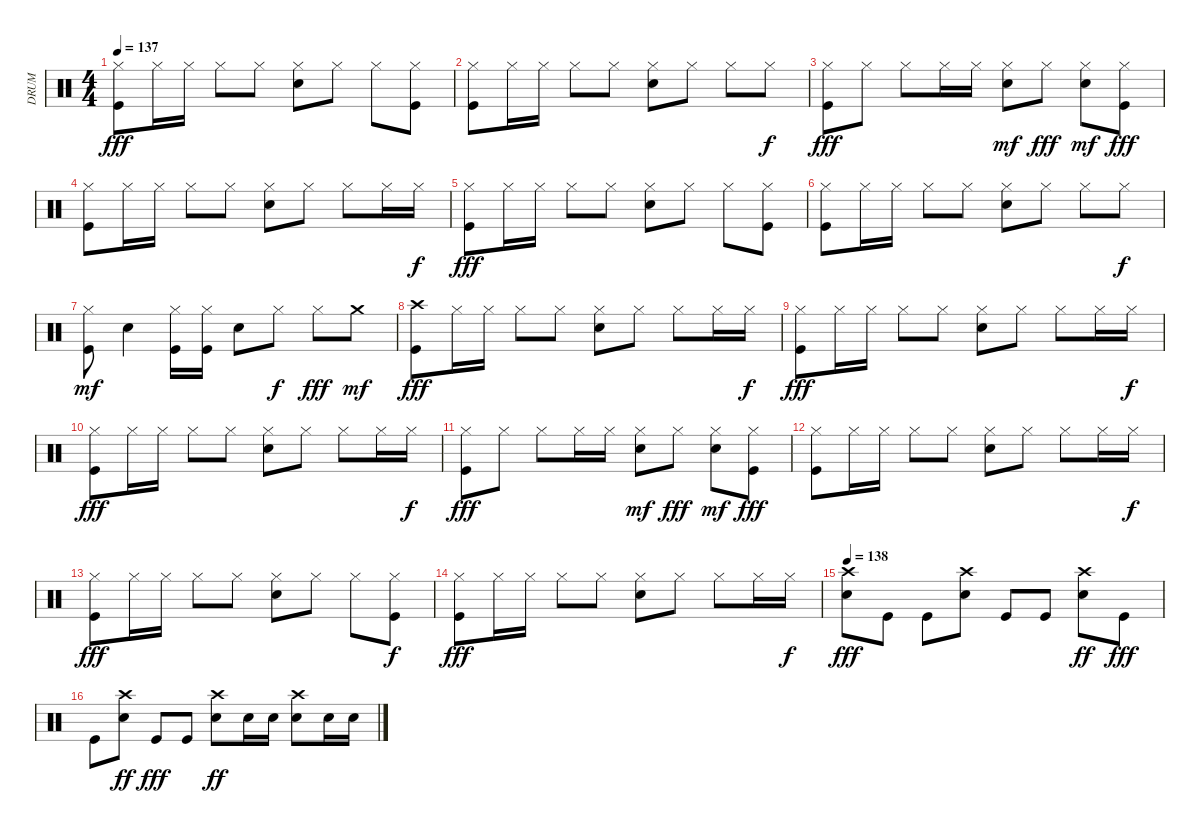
\track ("DRUM" "DRUM") {instrument percussion}
\staff {score}
\articulation defaults
\ts (4 4)
\tempo 137
\clef neutral
\ks c
("Kick (hit)" "Hi-Hat (closed)").8{dy fff} "Hi-Hat (closed)".16 "Hi-Hat (closed)".16 "Hi-Hat (closed)".8 "Hi-Hat (closed)".8 ("Hi-Hat (closed)" "Electric Snare (hit)").8 "Hi-Hat (closed)".8 "Hi-Hat (closed)".8 ("Hi-Hat (closed)" "Kick (hit)").8 |
("Kick (hit)" "Hi-Hat (closed)").8 "Hi-Hat (closed)".16 "Hi-Hat (closed)".16 "Hi-Hat (closed)".8 "Hi-Hat (closed)".8 ("Hi-Hat (closed)" "Electric Snare (hit)").8 "Hi-Hat (closed)".8 "Hi-Hat (closed)".8 "Hi-Hat (closed)".8{dy f} |
("Kick (hit)" "Hi-Hat (closed)").8{dy fff} "Hi-Hat (closed)".8 "Hi-Hat (closed)".8 "Hi-Hat (closed)".16 "Hi-Hat (closed)".16 ("Electric Snare (hit)" "Hi-Hat (closed)").8{dy mf} "Hi-Hat (closed)".8{dy fff} ("Hi-Hat (closed)" "Electric Snare (hit)").8{dy mf} ("Hi-Hat (closed)" "Kick (hit)").8{dy fff} |
("Hi-Hat (closed)" "Kick (hit)").8 "Hi-Hat (closed)".16 "Hi-Hat (closed)".16 "Hi-Hat (closed)".8 "Hi-Hat (closed)".8 ("Hi-Hat (closed)" "Electric Snare (hit)").8 "Hi-Hat (closed)".8 "Hi-Hat (closed)".8 "Hi-Hat (closed)".16 "Hi-Hat (closed)".16{dy f} |
("Kick (hit)" "Hi-Hat (closed)").8{dy fff} "Hi-Hat (closed)".16 "Hi-Hat (closed)".16 "Hi-Hat (closed)".8 "Hi-Hat (closed)".8 ("Hi-Hat (closed)" "Electric Snare (hit)").8 "Hi-Hat (closed)".8 "Hi-Hat (closed)".8 ("Hi-Hat (closed)" "Kick (hit)").8 |
("Kick (hit)" "Hi-Hat (closed)").8 "Hi-Hat (closed)".16 "Hi-Hat (closed)".16 "Hi-Hat (closed)".8 "Hi-Hat (closed)".8 ("Hi-Hat (closed)" "Electric Snare (hit)").8 "Hi-Hat (closed)".8 "Hi-Hat (closed)".8 "Hi-Hat (closed)".8{dy f} |
("Hi-Hat (closed)" "Kick (hit)").8{dy mf} "Electric Snare (hit)".4 ("Hi-Hat (closed)" "Kick (hit)").16 ("Hi-Hat (closed)" "Kick (hit)").16 "Electric Snare (hit)".8 "Hi-Hat (closed)".8{dy f} "Hi-Hat (closed)".8{dy fff} "Crash medium (hit)".8{dy mf} |
("Crash high (hit)" "Kick (hit)").8{dy fff} "Hi-Hat (closed)".16 "Hi-Hat (closed)".16 "Hi-Hat (closed)".8 "Hi-Hat (closed)".8 ("Hi-Hat (closed)" "Electric Snare (hit)").8 "Hi-Hat (closed)".8 "Hi-Hat (closed)".8 "Hi-Hat (closed)".16 "Hi-Hat (closed)".16{dy f} |
("Hi-Hat (closed)" "Kick (hit)").8{dy fff} "Hi-Hat (closed)".16 "Hi-Hat (closed)".16 "Hi-Hat (closed)".8 "Hi-Hat (closed)".8 ("Hi-Hat (closed)" "Electric Snare (hit)").8 "Hi-Hat (closed)".8 "Hi-Hat (closed)".8 "Hi-Hat (closed)".16 "Hi-Hat (closed)".16{dy f} |
("Hi-Hat (closed)" "Kick (hit)").8{dy fff} "Hi-Hat (closed)".16 "Hi-Hat (closed)".16 "Hi-Hat (closed)".8 "Hi-Hat (closed)".8 ("Hi-Hat (closed)" "Electric Snare (hit)").8 "Hi-Hat (closed)".8 "Hi-Hat (closed)".8 "Hi-Hat (closed)".16 "Hi-Hat (closed)".16{dy f} |
("Kick (hit)" "Hi-Hat (closed)").8{dy fff} "Hi-Hat (closed)".8 "Hi-Hat (closed)".8 "Hi-Hat (closed)".16 "Hi-Hat (closed)".16 ("Electric Snare (hit)" "Hi-Hat (closed)").8{dy mf} "Hi-Hat (closed)".8{dy fff} ("Hi-Hat (closed)" "Electric Snare (hit)").8{dy mf} ("Hi-Hat (closed)" "Kick (hit)").8{dy fff} |
("Hi-Hat (closed)" "Kick (hit)").8 "Hi-Hat (closed)".16 "Hi-Hat (closed)".16 "Hi-Hat (closed)".8 "Hi-Hat (closed)".8 ("Hi-Hat (closed)" "Electric Snare (hit)").8 "Hi-Hat (closed)".8 "Hi-Hat (closed)".8 "Hi-Hat (closed)".16 "Hi-Hat (closed)".16{dy f} |
("Kick (hit)" "Hi-Hat (closed)").8{dy fff} "Hi-Hat (closed)".16 "Hi-Hat (closed)".16 "Hi-Hat (closed)".8 "Hi-Hat (closed)".8 ("Hi-Hat (closed)" "Electric Snare (hit)").8 "Hi-Hat (closed)".8 "Hi-Hat (closed)".8 ("Hi-Hat (closed)" "Kick (hit)").8{dy f} |
("Hi-Hat (closed)" "Kick (hit)").8{dy fff} "Hi-Hat (closed)".16 "Hi-Hat (closed)".16 "Hi-Hat (closed)".8 "Hi-Hat (closed)".8 ("Hi-Hat (closed)" "Electric Snare (hit)").8 "Hi-Hat (closed)".8 "Hi-Hat (closed)".8 "Hi-Hat (closed)".16 "Hi-Hat (closed)".16{dy f} |
\tempo 138
("Crash high (hit)" "Electric Snare (hit)").8{dy fff} "Kick (hit)".8 "Kick (hit)".8 ("Crash high (hit)" "Electric Snare (hit)").8 "Kick (hit)".8 "Kick (hit)".8 ("Crash high (hit)" "Electric Snare (hit)").8{dy ff} "Kick (hit)".8{dy fff} |
"Kick (hit)".8 ("Crash high (hit)" "Electric Snare (hit)").8{dy ff} "Kick (hit)".8{dy fff} "Kick (hit)".8 ("Crash high (hit)" "Electric Snare (hit)").8{dy ff} "Electric Snare (hit)".16 "Electric Snare (hit)".16 ("Crash high (hit)" "Electric Snare (hit)").8 "Electric Snare (hit)".16 "Electric Snare (hit)".16
